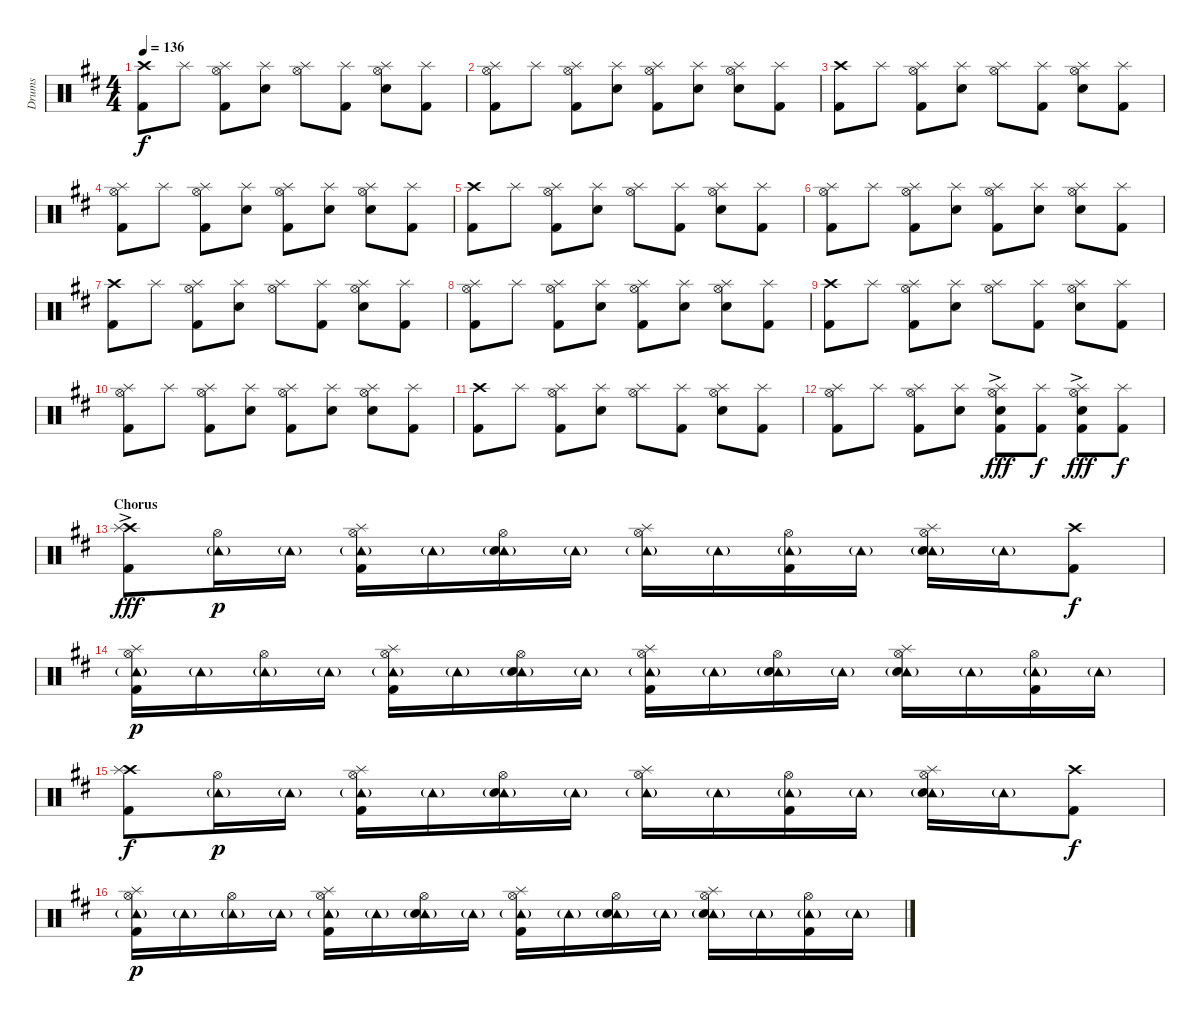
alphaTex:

\track ("Drums" "Drums") {instrument percussion}
\staff {score}
\articulation defaults
\ts (4 4)
\tempo 136
\clef neutral
\ks d
("Crash high (hit)" "Kick (hit) 2").8{dy f} "Splash (hit)".8 ("Hi-Hat (open)" "Splash (hit)" "Kick (hit) 2").8 ("Splash (hit)" "Snare (hit) 2").8 ("Hi-Hat (open)" "Splash (hit)").8 ("Splash (hit)" "Kick (hit) 2").8 ("Hi-Hat (open)" "Splash (hit)" "Snare (hit) 2").8 ("Splash (hit)" "Kick (hit) 2").8 |
("Hi-Hat (open)" "Splash (hit)" "Kick (hit) 2").8 "Splash (hit)".8 ("Hi-Hat (open)" "Splash (hit)" "Kick (hit) 2").8 ("Splash (hit)" "Snare (hit) 2").8 ("Hi-Hat (open)" "Splash (hit)" "Kick (hit) 2").8 ("Splash (hit)" "Snare (hit) 2").8 ("Hi-Hat (open)" "Splash (hit)" "Snare (hit) 2").8 ("Splash (hit)" "Kick (hit) 2").8 |
("Crash high (hit)" "Kick (hit) 2").8 "Splash (hit)".8 ("Hi-Hat (open)" "Splash (hit)" "Kick (hit) 2").8 ("Splash (hit)" "Snare (hit) 2").8 ("Hi-Hat (open)" "Splash (hit)").8 ("Splash (hit)" "Kick (hit) 2").8 ("Hi-Hat (open)" "Splash (hit)" "Snare (hit) 2").8 ("Splash (hit)" "Kick (hit) 2").8 |
("Hi-Hat (open)" "Splash (hit)" "Kick (hit) 2").8 "Splash (hit)".8 ("Hi-Hat (open)" "Splash (hit)" "Kick (hit) 2").8 ("Splash (hit)" "Snare (hit) 2").8 ("Hi-Hat (open)" "Splash (hit)" "Kick (hit) 2").8 ("Splash (hit)" "Snare (hit) 2").8 ("Hi-Hat (open)" "Splash (hit)" "Snare (hit) 2").8 ("Splash (hit)" "Kick (hit) 2").8 |
("Crash high (hit)" "Kick (hit) 2").8 "Splash (hit)".8 ("Hi-Hat (open)" "Splash (hit)" "Kick (hit) 2").8 ("Splash (hit)" "Snare (hit) 2").8 ("Hi-Hat (open)" "Splash (hit)").8 ("Splash (hit)" "Kick (hit) 2").8 ("Hi-Hat (open)" "Splash (hit)" "Snare (hit) 2").8 ("Splash (hit)" "Kick (hit) 2").8 |
("Hi-Hat (open)" "Splash (hit)" "Kick (hit) 2").8 "Splash (hit)".8 ("Hi-Hat (open)" "Splash (hit)" "Kick (hit) 2").8 ("Splash (hit)" "Snare (hit) 2").8 ("Hi-Hat (open)" "Splash (hit)" "Kick (hit) 2").8 ("Splash (hit)" "Snare (hit) 2").8 ("Hi-Hat (open)" "Splash (hit)" "Snare (hit) 2").8 ("Splash (hit)" "Kick (hit) 2").8 |
("Crash high (hit)" "Kick (hit) 2").8 "Splash (hit)".8 ("Hi-Hat (open)" "Splash (hit)" "Kick (hit) 2").8 ("Splash (hit)" "Snare (hit) 2").8 ("Hi-Hat (open)" "Splash (hit)").8 ("Splash (hit)" "Kick (hit) 2").8 ("Hi-Hat (open)" "Splash (hit)" "Snare (hit) 2").8 ("Splash (hit)" "Kick (hit) 2").8 |
("Hi-Hat (open)" "Splash (hit)" "Kick (hit) 2").8 "Splash (hit)".8 ("Hi-Hat (open)" "Splash (hit)" "Kick (hit) 2").8 ("Splash (hit)" "Snare (hit) 2").8 ("Hi-Hat (open)" "Splash (hit)" "Kick (hit) 2").8 ("Splash (hit)" "Snare (hit) 2").8 ("Hi-Hat (open)" "Splash (hit)" "Snare (hit) 2").8 ("Splash (hit)" "Kick (hit) 2").8 |
("Crash high (hit)" "Kick (hit) 2").8 "Splash (hit)".8 ("Hi-Hat (open)" "Splash (hit)" "Kick (hit) 2").8 ("Splash (hit)" "Snare (hit) 2").8 ("Hi-Hat (open)" "Splash (hit)").8 ("Splash (hit)" "Kick (hit) 2").8 ("Hi-Hat (open)" "Splash (hit)" "Snare (hit) 2").8 ("Splash (hit)" "Kick (hit) 2").8 |
("Hi-Hat (open)" "Splash (hit)" "Kick (hit) 2").8 "Splash (hit)".8 ("Hi-Hat (open)" "Splash (hit)" "Kick (hit) 2").8 ("Splash (hit)" "Snare (hit) 2").8 ("Hi-Hat (open)" "Splash (hit)" "Kick (hit) 2").8 ("Splash (hit)" "Snare (hit) 2").8 ("Hi-Hat (open)" "Splash (hit)" "Snare (hit) 2").8 ("Splash (hit)" "Kick (hit) 2").8 |
("Crash high (hit)" "Kick (hit) 2").8 "Splash (hit)".8 ("Hi-Hat (open)" "Splash (hit)" "Kick (hit) 2").8 ("Splash (hit)" "Snare (hit) 2").8 ("Hi-Hat (open)" "Splash (hit)").8 ("Splash (hit)" "Kick (hit) 2").8 ("Hi-Hat (open)" "Splash (hit)" "Snare (hit) 2").8 ("Splash (hit)" "Kick (hit) 2").8 |
("Hi-Hat (open)" "Splash (hit)" "Kick (hit) 2").8 "Splash (hit)".8 ("Hi-Hat (open)" "Splash (hit)" "Kick (hit) 2").8 ("Splash (hit)" "Snare (hit) 2").8 ("Hi-Hat (open)" "Splash (hit)" "Snare (hit) 2"{ac} "Kick (hit) 2"{ac}).8{dy fff} ("Splash (hit)" "Kick (hit) 2").8{dy f} ("Hi-Hat (open)" "Splash (hit)" "Snare (hit) 2"{ac} "Kick (hit) 2"{ac}).8{dy fff} ("Splash (hit)" "Kick (hit) 2").8{dy f} |
\section ("" "Chorus")
("Crash high (hit)"{ac} "Splash (hit)" "Kick (hit) 2"{ac}).8{dy fff} ("Hi-Hat (open)" "Tambourine (hit)"{g}).16{dy p} "Tambourine (hit)"{g}.16 ("Hi-Hat (open)" "Splash (hit)" "Tambourine (hit)"{g} "Kick (hit) 2").16 "Tambourine (hit)"{g}.16 ("Hi-Hat (open)" "Tambourine (hit)"{g} "Snare (hit) 2").16 "Tambourine (hit)"{g}.16 ("Hi-Hat (open)" "Splash (hit)" "Tambourine (hit)"{g}).16 "Tambourine (hit)"{g}.16 ("Hi-Hat (open)" "Tambourine (hit)"{g} "Kick (hit) 2").16 "Tambourine (hit)"{g}.16 ("Hi-Hat (open)" "Splash (hit)" "Tambourine (hit)"{g} "Snare (hit) 2").16 "Tambourine (hit)"{g}.16 ("Crash high (hit)" "Kick (hit) 2").8{dy f} |
("Hi-Hat (open)" "Splash (hit)" "Tambourine (hit)"{g} "Kick (hit) 2").16{dy p} "Tambourine (hit)"{g}.16 ("Hi-Hat (open)" "Tambourine (hit)"{g}).16 "Tambourine (hit)"{g}.16 ("Hi-Hat (open)" "Splash (hit)" "Tambourine (hit)"{g} "Kick (hit) 2").16 "Tambourine (hit)"{g}.16 ("Hi-Hat (open)" "Tambourine (hit)"{g} "Snare (hit) 2").16 "Tambourine (hit)"{g}.16 ("Hi-Hat (open)" "Splash (hit)" "Tambourine (hit)"{g} "Kick (hit) 2").16 "Tambourine (hit)"{g}.16 ("Hi-Hat (open)" "Tambourine (hit)"{g} "Snare (hit) 2").16 "Tambourine (hit)"{g}.16 ("Hi-Hat (open)" "Splash (hit)" "Tambourine (hit)"{g} "Snare (hit) 2").16 "Tambourine (hit)"{g}.16 ("Hi-Hat (open)" "Tambourine (hit)"{g} "Kick (hit) 2").16 "Tambourine (hit)"{g}.16 |
("Crash high (hit)" "Splash (hit)" "Kick (hit) 2").8{dy f} ("Hi-Hat (open)" "Tambourine (hit)"{g}).16{dy p} "Tambourine (hit)"{g}.16 ("Hi-Hat (open)" "Splash (hit)" "Tambourine (hit)"{g} "Kick (hit) 2").16 "Tambourine (hit)"{g}.16 ("Hi-Hat (open)" "Tambourine (hit)"{g} "Snare (hit) 2").16 "Tambourine (hit)"{g}.16 ("Hi-Hat (open)" "Splash (hit)" "Tambourine (hit)"{g}).16 "Tambourine (hit)"{g}.16 ("Hi-Hat (open)" "Tambourine (hit)"{g} "Kick (hit) 2").16 "Tambourine (hit)"{g}.16 ("Hi-Hat (open)" "Splash (hit)" "Tambourine (hit)"{g} "Snare (hit) 2").16 "Tambourine (hit)"{g}.16 ("Crash high (hit)" "Kick (hit) 2").8{dy f} |
("Hi-Hat (open)" "Splash (hit)" "Tambourine (hit)"{g} "Kick (hit) 2").16{dy p} "Tambourine (hit)"{g}.16 ("Hi-Hat (open)" "Tambourine (hit)"{g}).16 "Tambourine (hit)"{g}.16 ("Hi-Hat (open)" "Splash (hit)" "Tambourine (hit)"{g} "Kick (hit) 2").16 "Tambourine (hit)"{g}.16 ("Hi-Hat (open)" "Tambourine (hit)"{g} "Snare (hit) 2").16 "Tambourine (hit)"{g}.16 ("Hi-Hat (open)" "Splash (hit)" "Tambourine (hit)"{g} "Kick (hit) 2").16 "Tambourine (hit)"{g}.16 ("Hi-Hat (open)" "Tambourine (hit)"{g} "Snare (hit) 2").16 "Tambourine (hit)"{g}.16 ("Hi-Hat (open)" "Splash (hit)" "Tambourine (hit)"{g} "Snare (hit) 2").16 "Tambourine (hit)"{g}.16 ("Hi-Hat (open)" "Tambourine (hit)"{g} "Kick (hit) 2").16 "Tambourine (hit)"{g}.16
